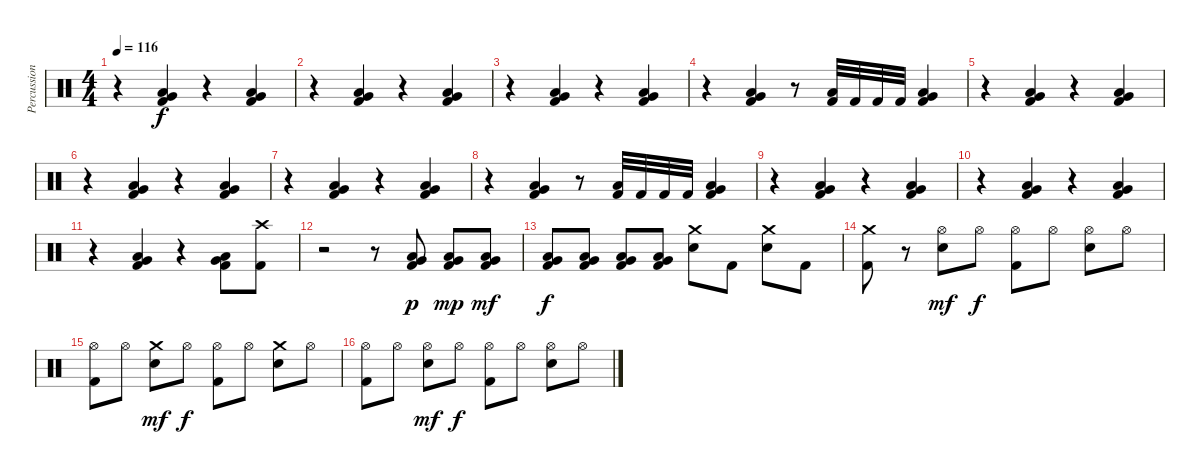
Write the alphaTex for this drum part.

\track ("Percussion" "Percussion") {instrument percussion}
\staff {score}
\articulation defaults
\ts (4 4)
\tempo 116
\clef neutral
\ks c
r.4{dy mf} ("Kick (hit) 2" "Low Tom (hit)" "Very Low Tom (hit)").4{dy f} r.4 ("Kick (hit) 2" "Low Tom (hit)" "Very Low Tom (hit)").4 |
r.4 ("Kick (hit) 2" "Low Tom (hit)" "Very Low Tom (hit)").4 r.4 ("Kick (hit) 2" "Low Tom (hit)" "Very Low Tom (hit)").4 |
r.4 ("Kick (hit) 2" "Low Tom (hit)" "Very Low Tom (hit)").4 r.4 ("Kick (hit) 2" "Low Tom (hit)" "Very Low Tom (hit)").4 |
r.4 ("Kick (hit) 2" "Low Tom (hit)" "Very Low Tom (hit)").4 r.8 ("Kick (hit) 2" "Low Tom (hit)").32 "Kick (hit) 2".32 "Kick (hit) 2".32 "Kick (hit) 2".32 ("Kick (hit) 2" "Low Tom (hit)" "Very Low Tom (hit)").4 |
r.4 ("Kick (hit) 2" "Low Tom (hit)" "Very Low Tom (hit)").4 r.4 ("Kick (hit) 2" "Low Tom (hit)" "Very Low Tom (hit)").4 |
r.4 ("Kick (hit) 2" "Low Tom (hit)" "Very Low Tom (hit)").4 r.4 ("Kick (hit) 2" "Low Tom (hit)" "Very Low Tom (hit)").4 |
r.4 ("Kick (hit) 2" "Low Tom (hit)" "Very Low Tom (hit)").4 r.4 ("Kick (hit) 2" "Low Tom (hit)" "Very Low Tom (hit)").4 |
r.4 ("Kick (hit) 2" "Low Tom (hit)" "Very Low Tom (hit)").4 r.8 ("Kick (hit) 2" "Low Tom (hit)").32 "Kick (hit) 2".32 "Kick (hit) 2".32 "Kick (hit) 2".32 ("Kick (hit) 2" "Low Tom (hit)" "Very Low Tom (hit)").4 |
r.4 ("Kick (hit) 2" "Low Tom (hit)" "Very Low Tom (hit)").4 r.4 ("Kick (hit) 2" "Low Tom (hit)" "Very Low Tom (hit)").4 |
r.4 ("Kick (hit) 2" "Low Tom (hit)" "Very Low Tom (hit)").4 r.4 ("Kick (hit) 2" "Low Tom (hit)" "Very Low Tom (hit)").4 |
r.4 ("Kick (hit) 2" "Low Tom (hit)" "Very Low Tom (hit)").4 r.4 ("Kick (hit) 2" "Low Tom (hit)" "Very Low Tom (hit)").8 ("Kick (hit) 2" "Crash high (hit)").8 |
r.2 r.8 ("Kick (hit) 2" "Low Tom (hit)" "Very Low Tom (hit)").8{dy p} ("Kick (hit) 2" "Low Tom (hit)" "Very Low Tom (hit)").8{dy mp} ("Kick (hit) 2" "Low Tom (hit)" "Very Low Tom (hit)").8{dy mf} |
("Kick (hit) 2" "Low Tom (hit)" "Very Low Tom (hit)").8{dy f} ("Kick (hit) 2" "Low Tom (hit)" "Very Low Tom (hit)").8 ("Kick (hit) 2" "Low Tom (hit)" "Very Low Tom (hit)").8 ("Kick (hit) 2" "Low Tom (hit)" "Very Low Tom (hit)").8 ("Snare (hit) 2" "Crash medium (hit)").8 "Kick (hit) 2".8 ("Snare (hit) 2" "Crash medium (hit)").8 "Kick (hit) 2".8 |
("Kick (hit) 2" "Crash medium (hit)").8 r.8 ("Snare (hit) 2" "Hi-Hat (open)").8{dy mf} "Hi-Hat (open)".8{dy f} ("Kick (hit) 2" "Hi-Hat (open)").8 "Hi-Hat (open)".8 ("Snare (hit) 2" "Hi-Hat (open)").8 "Hi-Hat (open)".8 |
("Kick (hit) 2" "Hi-Hat (open)").8 "Hi-Hat (open)".8 ("Snare (hit) 2" "Crash medium (hit)").8{dy mf} "Hi-Hat (open)".8{dy f} ("Kick (hit) 2" "Hi-Hat (open)").8 "Hi-Hat (open)".8 ("Snare (hit) 2" "Crash medium (hit)").8 "Hi-Hat (open)".8 |
("Kick (hit) 2" "Hi-Hat (open)").8 "Hi-Hat (open)".8 ("Snare (hit) 2" "Hi-Hat (open)").8{dy mf} "Hi-Hat (open)".8{dy f} ("Kick (hit) 2" "Hi-Hat (open)").8 "Hi-Hat (open)".8 ("Snare (hit) 2" "Hi-Hat (open)").8 "Hi-Hat (open)".8
